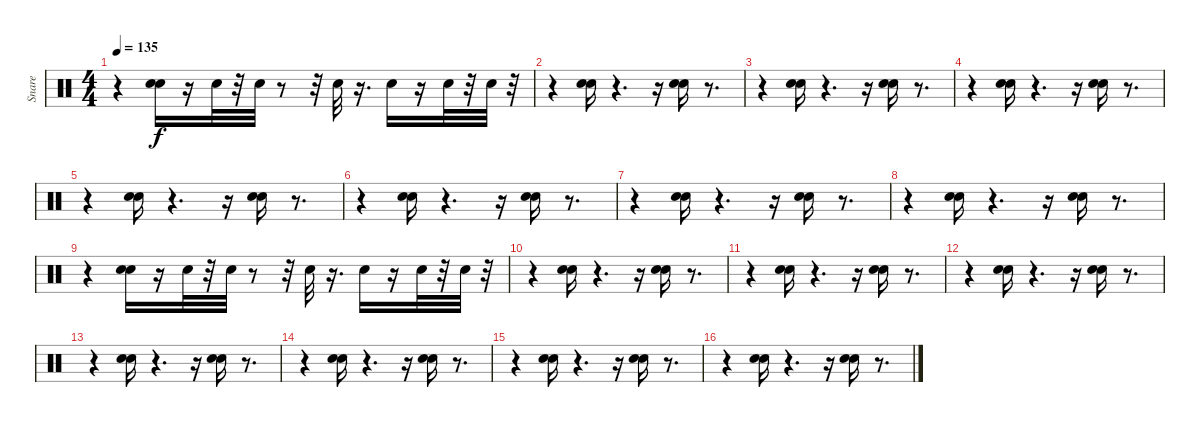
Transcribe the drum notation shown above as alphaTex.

\track ("Snare" "Snare") {instrument percussion}
\staff {score}
\articulation defaults
\ts (4 4)
\tempo 135
\clef neutral
\ks c
r.4{dy f} ("Snare (hit) 2" "Hand Clap (hit)").16 r.16 "Snare (hit) 2".32 r.32 "Snare (hit) 2".32 r.8 r.32 "Snare (hit) 2".32 r.16{d} "Snare (hit) 2".16 r.16 "Snare (hit) 2".32 r.32 "Snare (hit) 2".32 r.32 |
r.4 ("Hand Clap (hit)" "Snare (hit) 2").16 r.4{d} r.16 ("Hand Clap (hit)" "Snare (hit) 2").16 r.8{d} |
r.4 ("Snare (hit) 2" "Hand Clap (hit)").16 r.4{d} r.16 ("Snare (hit) 2" "Hand Clap (hit)").16 r.8{d} |
r.4 ("Hand Clap (hit)" "Snare (hit) 2").16 r.4{d} r.16 ("Hand Clap (hit)" "Snare (hit) 2").16 r.8{d} |
r.4 ("Hand Clap (hit)" "Snare (hit) 2").16 r.4{d} r.16 ("Hand Clap (hit)" "Snare (hit) 2").16 r.8{d} |
r.4 ("Hand Clap (hit)" "Snare (hit) 2").16 r.4{d} r.16 ("Hand Clap (hit)" "Snare (hit) 2").16 r.8{d} |
r.4 ("Snare (hit) 2" "Hand Clap (hit)").16 r.4{d} r.16 ("Snare (hit) 2" "Hand Clap (hit)").16 r.8{d} |
r.4 ("Hand Clap (hit)" "Snare (hit) 2").16 r.4{d} r.16 ("Hand Clap (hit)" "Snare (hit) 2").16 r.8{d} |
r.4 ("Snare (hit) 2" "Hand Clap (hit)").16 r.16 "Snare (hit) 2".32 r.32 "Snare (hit) 2".32 r.8 r.32 "Snare (hit) 2".32 r.16{d} "Snare (hit) 2".16 r.16 "Snare (hit) 2".32 r.32 "Snare (hit) 2".32 r.32 |
r.4 ("Hand Clap (hit)" "Snare (hit) 2").16 r.4{d} r.16 ("Hand Clap (hit)" "Snare (hit) 2").16 r.8{d} |
r.4 ("Snare (hit) 2" "Hand Clap (hit)").16 r.4{d} r.16 ("Snare (hit) 2" "Hand Clap (hit)").16 r.8{d} |
r.4 ("Hand Clap (hit)" "Snare (hit) 2").16 r.4{d} r.16 ("Hand Clap (hit)" "Snare (hit) 2").16 r.8{d} |
r.4 ("Hand Clap (hit)" "Snare (hit) 2").16 r.4{d} r.16 ("Hand Clap (hit)" "Snare (hit) 2").16 r.8{d} |
r.4 ("Hand Clap (hit)" "Snare (hit) 2").16 r.4{d} r.16 ("Hand Clap (hit)" "Snare (hit) 2").16 r.8{d} |
r.4 ("Snare (hit) 2" "Hand Clap (hit)").16 r.4{d} r.16 ("Snare (hit) 2" "Hand Clap (hit)").16 r.8{d} |
r.4 ("Hand Clap (hit)" "Snare (hit) 2").16 r.4{d} r.16 ("Hand Clap (hit)" "Snare (hit) 2").16 r.8{d}
